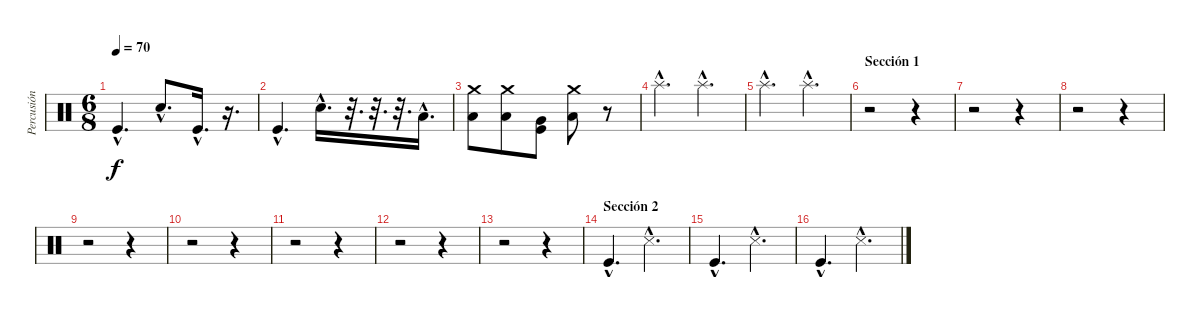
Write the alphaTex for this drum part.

\track ("Percusión" "Percusión") {instrument percussion}
\staff {score}
\articulation defaults
\ts (6 8)
\tempo 70
\clef neutral
\ks c "Kick (hit)"{hac}.4{d dy f} "Electric Snare (hit)"{hac}.8{d} "Kick (hit)"{hac}.16{d}
r.16{d} |
"Kick (hit)"{hac}.4{d} "Electric Snare (hit)"{hac}.16{d} r.32{d} r.32{d} r.32{d} "Low Tom (hit)"{hac}.16{d} |
("Crash medium (hit)" "Low Tom (hit)").8 ("Crash medium (hit)" "Low Tom (hit)").8 ("Very Low Tom (hit)" "Kick (hit)").8 ("Crash medium (hit)" "Low Tom (hit)").8 r.8 |
"Splash (hit)"{hac}.4{d} "Splash (hit)"{hac}.4{d} |
"Splash (hit)"{hac}.4{d} "Splash (hit)"{hac}.4{d} |
\section ("" "Sección 1")
r.2 r.4 |
r.2 r.4 |
r.2 r.4 |
r.2 r.4 |
r.2 r.4 |
r.2 r.4 |
r.2 r.4 |
r.2 r.4 |
\section ("" "Sección 2")
"Kick (hit)"{hac}.4{d} "Snare (side stick) 3"{hac}.4{d} |
"Kick (hit)"{hac}.4{d} "Snare (side stick) 3"{hac}.4{d} |
"Kick (hit)"{hac}.4{d} "Snare (side stick) 3"{hac}.4{d}
